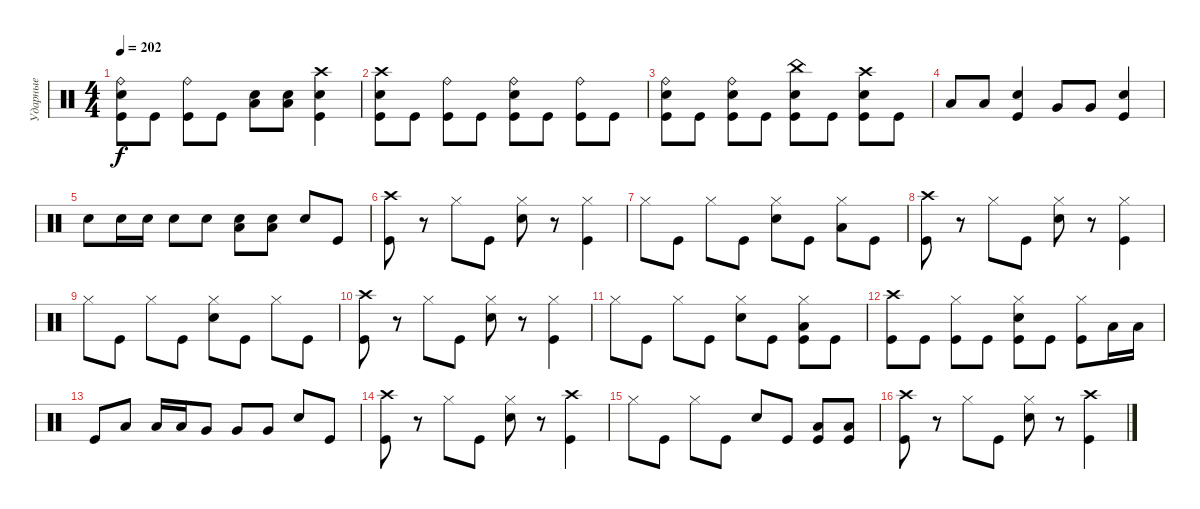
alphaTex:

\track ("Ударные" "Ударные") {instrument percussion}
\staff {score}
\articulation defaults
\ts (4 4)
\tempo 202
\clef neutral
\ks c
("Ride (bell)" "Electric Snare (hit)" "Kick (hit)").8{dy f} "Kick (hit)".8 ("Ride (bell)" "Kick (hit)").8 "Kick (hit)".8 ("Low Tom (hit)" "Electric Snare (hit)").8 ("Low Tom (hit)" "Electric Snare (hit)").8 ("Crash high (hit)" "Electric Snare (hit)" "Kick (hit)").4 |
("Crash high (hit)" "Electric Snare (hit)" "Kick (hit)").8 "Kick (hit)".8 ("Ride (bell)" "Kick (hit)").8 "Kick (hit)".8 ("Ride (bell)" "Electric Snare (hit)" "Kick (hit)").8 "Kick (hit)".8 ("Ride (bell)" "Kick (hit)").8 "Kick (hit)".8 |
("Ride (bell)" "Electric Snare (hit)" "Kick (hit)").8 "Kick (hit)".8 ("Ride (bell)" "Electric Snare (hit)" "Kick (hit)").8 "Kick (hit)".8 ("China (hit)" "Electric Snare (hit)" "Kick (hit)").8 "Kick (hit)".8 ("Crash high (hit)" "Electric Snare (hit)" "Kick (hit)").8 "Kick (hit)".8 |
"Low Tom (hit)".8 "Low Tom (hit)".8 ("Electric Snare (hit)" "Kick (hit)").4 "Very Low Tom (hit)".8 "Very Low Tom (hit)".8 ("Electric Snare (hit)" "Kick (hit)").4 |
"Electric Snare (hit)".8 "Electric Snare (hit)".16 "Electric Snare (hit)".16 "Electric Snare (hit)".8 "Electric Snare (hit)".8 ("Low Tom (hit)" "Electric Snare (hit)").8 ("Low Tom (hit)" "Electric Snare (hit)").8 "Electric Snare (hit)".8 "Kick (hit)".8 |
("Crash high (hit)" "Kick (hit)").8 r.8 "Hi-Hat (closed)".8 "Kick (hit)".8 ("Hi-Hat (closed)" "Electric Snare (hit)").8 r.8 ("Hi-Hat (closed)" "Kick (hit)").4 |
"Hi-Hat (closed)".8 "Kick (hit)".8 "Hi-Hat (closed)".8 "Kick (hit)".8 ("Hi-Hat (closed)" "Electric Snare (hit)").8 "Kick (hit)".8 ("Hi-Hat (closed)" "Low Tom (hit)").8 "Kick (hit)".8 |
("Crash high (hit)" "Kick (hit)").8 r.8 "Hi-Hat (closed)".8 "Kick (hit)".8 ("Hi-Hat (closed)" "Electric Snare (hit)").8 r.8 ("Hi-Hat (closed)" "Kick (hit)").4 |
"Hi-Hat (closed)".8 "Kick (hit)".8 "Hi-Hat (closed)".8 "Kick (hit)".8 ("Hi-Hat (closed)" "Electric Snare (hit)").8 "Kick (hit)".8 "Hi-Hat (closed)".8 "Kick (hit)".8 |
("Crash high (hit)" "Kick (hit)").8 r.8 "Hi-Hat (closed)".8 "Kick (hit)".8 ("Hi-Hat (closed)" "Electric Snare (hit)").8 r.8 ("Hi-Hat (closed)" "Kick (hit)").4 |
"Hi-Hat (closed)".8 "Kick (hit)".8 "Hi-Hat (closed)".8 "Kick (hit)".8 ("Hi-Hat (closed)" "Electric Snare (hit)").8 "Kick (hit)".8 ("Hi-Hat (closed)" "Low Tom (hit)" "Kick (hit)").8 "Kick (hit)".8 |
("Crash high (hit)" "Kick (hit)").8 "Kick (hit)".8 ("Hi-Hat (closed)" "Kick (hit)").8 "Kick (hit)".8 ("Hi-Hat (closed)" "Electric Snare (hit)" "Kick (hit)").8 "Kick (hit)".8 ("Hi-Hat (closed)" "Kick (hit)").8 "Low Tom (hit)".16 "Low Tom (hit)".16 |
"Kick (hit)".8 "Low Tom (hit)".8 "Low Tom (hit)".16 "Low Tom (hit)".16 "Very Low Tom (hit)".8 "Very Low Tom (hit)".8 "Very Low Tom (hit)".8 "Electric Snare (hit)".8 "Kick (hit)".8 |
("Crash high (hit)" "Kick (hit)").8 r.8 "Hi-Hat (closed)".8 "Kick (hit)".8 ("Hi-Hat (closed)" "Electric Snare (hit)").8 r.8 ("Crash high (hit)" "Kick (hit)").4 |
"Hi-Hat (closed)".8 "Kick (hit)".8 "Hi-Hat (closed)".8 "Kick (hit)".8 "Electric Snare (hit)".8 "Kick (hit)".8 ("Low Tom (hit)" "Kick (hit)").8 ("Low Tom (hit)" "Kick (hit)").8 |
("Crash high (hit)" "Kick (hit)").8 r.8 "Hi-Hat (closed)".8 "Kick (hit)".8 ("Hi-Hat (closed)" "Electric Snare (hit)").8 r.8 ("Crash high (hit)" "Kick (hit)").4
